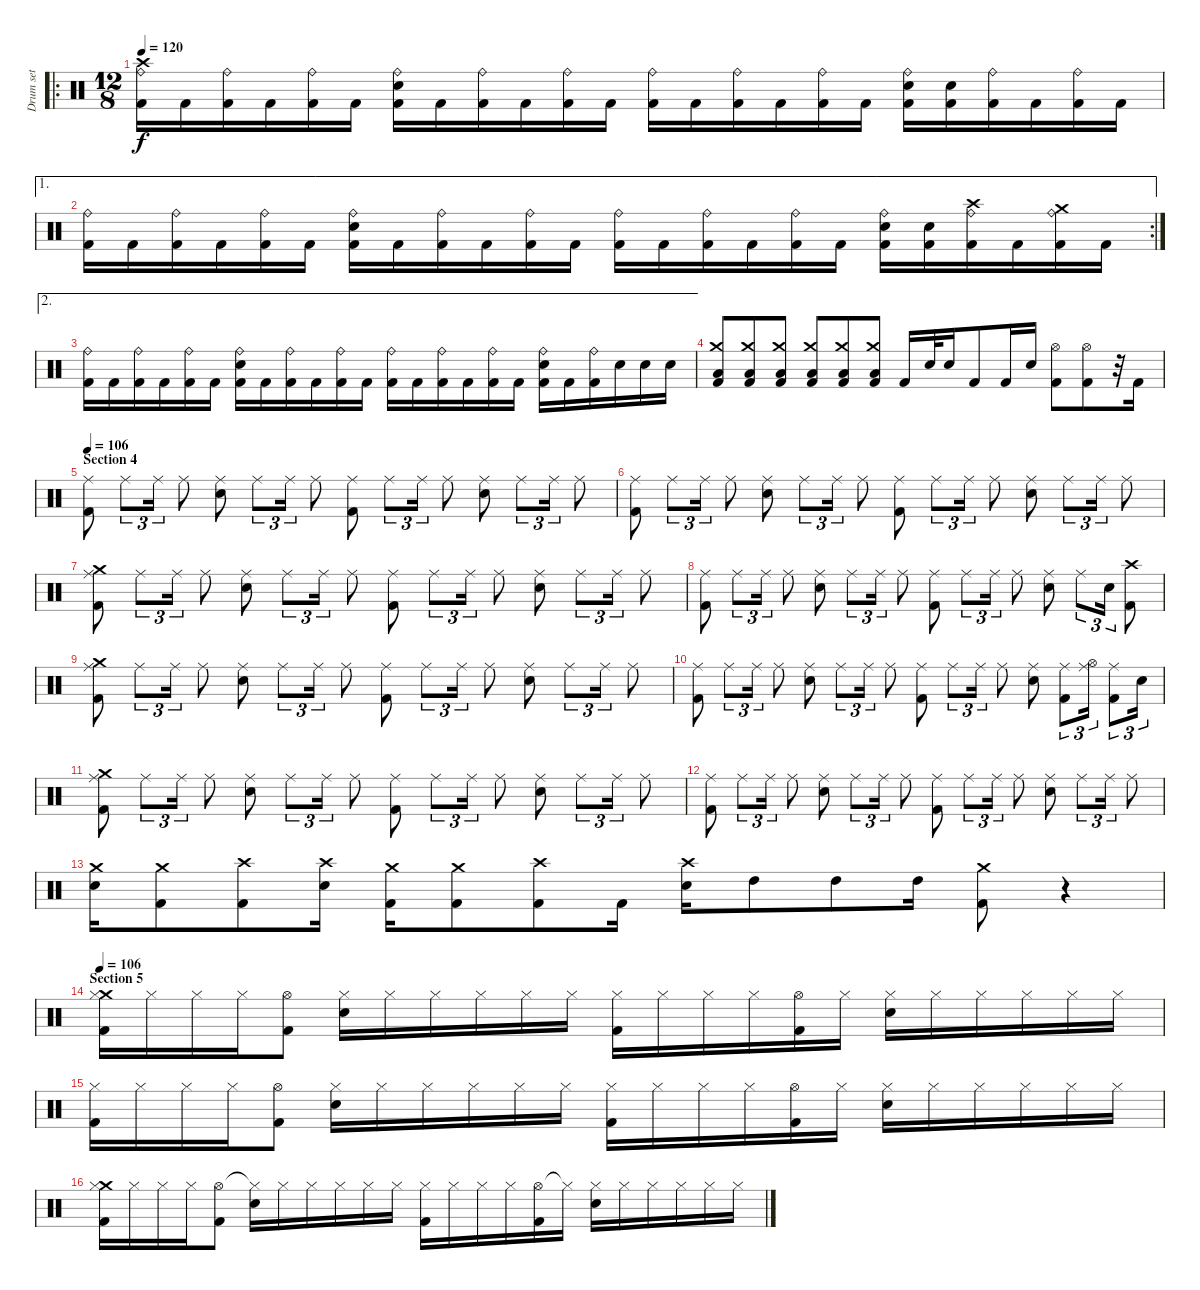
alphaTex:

\track ("Drum set" "Drum set") {instrument percussion}
\staff {score}
\articulation defaults
\ro
\ts (12 8)
\tempo 120
\clef neutral
\ks c
("Crash high (hit)" "Ride (bell)" "Kick (hit) 2").16{dy f} "Kick (hit) 2".16 ("Ride (bell)" "Kick (hit) 2").16 "Kick (hit) 2".16 ("Ride (bell)" "Kick (hit) 2").16 "Kick (hit) 2".16 ("Ride (bell)" "Snare (hit) 2" "Kick (hit) 2").16 "Kick (hit) 2".16 ("Ride (bell)" "Kick (hit) 2").16 "Kick (hit) 2".16 ("Ride (bell)" "Kick (hit) 2").16 "Kick (hit) 2".16 ("Ride (bell)" "Kick (hit) 2").16 "Kick (hit) 2".16 ("Ride (bell)" "Kick (hit) 2").16 "Kick (hit) 2".16 ("Ride (bell)" "Kick (hit) 2").16 "Kick (hit) 2".16 ("Ride (bell)" "Snare (hit) 2" "Kick (hit) 2").16 ("Snare (hit) 2" "Kick (hit) 2").16 ("Ride (bell)" "Kick (hit) 2").16 "Kick (hit) 2".16 ("Ride (bell)" "Kick (hit) 2").16 "Kick (hit) 2".16 |
\ae 1
\rc 2
("Ride (bell)" "Kick (hit) 2").16 "Kick (hit) 2".16 ("Ride (bell)" "Kick (hit) 2").16 "Kick (hit) 2".16 ("Ride (bell)" "Kick (hit) 2").16 "Kick (hit) 2".16 ("Ride (bell)" "Snare (hit) 2" "Kick (hit) 2").16 "Kick (hit) 2".16 ("Ride (bell)" "Kick (hit) 2").16 "Kick (hit) 2".16 ("Ride (bell)" "Kick (hit) 2").16 "Kick (hit) 2".16 ("Ride (bell)" "Kick (hit) 2").16 "Kick (hit) 2".16 ("Ride (bell)" "Kick (hit) 2").16 "Kick (hit) 2".16 ("Ride (bell)" "Kick (hit) 2").16 "Kick (hit) 2".16 ("Ride (bell)" "Snare (hit) 2" "Kick (hit) 2").16 ("Snare (hit) 2" "Kick (hit) 2").16 ("Crash high (hit)" "Ride (bell)" "Kick (hit) 2").16 "Kick (hit) 2".16 ("Crash medium (hit)" "Ride (bell)" "Kick (hit) 2").16 "Kick (hit) 2".16 |
\ae 2
("Ride (bell)" "Kick (hit) 2").16 "Kick (hit) 2".16 ("Ride (bell)" "Kick (hit) 2").16 "Kick (hit) 2".16 ("Ride (bell)" "Kick (hit) 2").16 "Kick (hit) 2".16 ("Ride (bell)" "Snare (hit) 2" "Kick (hit) 2").16 "Kick (hit) 2".16 ("Ride (bell)" "Kick (hit) 2").16 "Kick (hit) 2".16 ("Ride (bell)" "Kick (hit) 2").16 "Kick (hit) 2".16 ("Ride (bell)" "Kick (hit) 2").16 "Kick (hit) 2".16 ("Ride (bell)" "Kick (hit) 2").16 "Kick (hit) 2".16 ("Ride (bell)" "Kick (hit) 2").16 "Kick (hit) 2".16 ("Ride (bell)" "Snare (hit) 2" "Kick (hit) 2").16 "Kick (hit) 2".16 ("Ride (bell)" "Kick (hit) 2").16 "Snare (hit) 2".16 "Snare (hit) 2".16 "Snare (hit) 2".16 |
("Crash medium (hit)" "Low Floor Tom (hit)" "Kick (hit) 2").8 ("Crash medium (hit)" "Low Floor Tom (hit)" "Kick (hit) 2").8 ("Crash medium (hit)" "Low Floor Tom (hit)" "Kick (hit) 2").8 ("Crash medium (hit)" "Low Floor Tom (hit)" "Kick (hit) 2").8 ("Crash medium (hit)" "Low Floor Tom (hit)" "Kick (hit) 2").8 ("Crash medium (hit)" "Low Floor Tom (hit)" "Kick (hit) 2").8 "Kick (hit) 2".16 "Snare (hit) 2".32 "Snare (hit) 2".16 "Kick (hit) 2".8 "Kick (hit) 2".16 "Snare (hit) 2".16 ("Hi-Hat (open)" "Kick (hit) 2").8 ("Hi-Hat (open)" "Kick (hit) 2").8 r.32 "Kick (hit) 2".16 |
\section ("" "Section 4")
\tempo 106
("Ride (middle)" "Kick (hit) 2").8 "Ride (middle)".8{tu (3 2)} "Ride (middle)".16{tu (3 2)} "Ride (middle)".8 ("Ride (middle)" "Snare (hit) 2").8 "Ride (middle)".8{tu (3 2)} "Ride (middle)".16{tu (3 2)} "Ride (middle)".8 ("Ride (middle)" "Kick (hit) 2").8 "Ride (middle)".8{tu (3 2)} "Ride (middle)".16{tu (3 2)} "Ride (middle)".8 ("Ride (middle)" "Snare (hit) 2").8 "Ride (middle)".8{tu (3 2)} "Ride (middle)".16{tu (3 2)} "Ride (middle)".8 |
("Ride (middle)" "Kick (hit) 2").8 "Ride (middle)".8{tu (3 2)} "Ride (middle)".16{tu (3 2)} "Ride (middle)".8 ("Ride (middle)" "Snare (hit) 2").8 "Ride (middle)".8{tu (3 2)} "Ride (middle)".16{tu (3 2)} "Ride (middle)".8 ("Ride (middle)" "Kick (hit) 2").8 "Ride (middle)".8{tu (3 2)} "Ride (middle)".16{tu (3 2)} "Ride (middle)".8 ("Ride (middle)" "Snare (hit) 2").8 "Ride (middle)".8{tu (3 2)} "Ride (middle)".16{tu (3 2)} "Ride (middle)".8 |
("Crash medium (hit)" "Ride (middle)" "Kick (hit) 2").8 "Ride (middle)".8{tu (3 2)} "Ride (middle)".16{tu (3 2)} "Ride (middle)".8 ("Ride (middle)" "Snare (hit) 2").8 "Ride (middle)".8{tu (3 2)} "Ride (middle)".16{tu (3 2)} "Ride (middle)".8 ("Ride (middle)" "Kick (hit) 2").8 "Ride (middle)".8{tu (3 2)} "Ride (middle)".16{tu (3 2)} "Ride (middle)".8 ("Ride (middle)" "Snare (hit) 2").8 "Ride (middle)".8{tu (3 2)} "Ride (middle)".16{tu (3 2)} "Ride (middle)".8 |
("Ride (middle)" "Kick (hit) 2").8 "Ride (middle)".8{tu (3 2)} "Ride (middle)".16{tu (3 2)} "Ride (middle)".8 ("Ride (middle)" "Snare (hit) 2").8 "Ride (middle)".8{tu (3 2)} "Ride (middle)".16{tu (3 2)} "Ride (middle)".8 ("Ride (middle)" "Kick (hit) 2").8 "Ride (middle)".8{tu (3 2)} "Ride (middle)".16{tu (3 2)} "Ride (middle)".8 ("Ride (middle)" "Snare (hit) 2").8 "Ride (middle)".8{tu (3 2)} "Snare (hit) 2".16{tu (3 2)} ("Crash high (hit)" "Kick (hit) 2").8 |
("Crash medium (hit)" "Ride (middle)" "Kick (hit) 2").8 "Ride (middle)".8{tu (3 2)} "Ride (middle)".16{tu (3 2)} "Ride (middle)".8 ("Ride (middle)" "Snare (hit) 2").8 "Ride (middle)".8{tu (3 2)} "Ride (middle)".16{tu (3 2)} "Ride (middle)".8 ("Ride (middle)" "Kick (hit) 2").8 "Ride (middle)".8{tu (3 2)} "Ride (middle)".16{tu (3 2)} "Ride (middle)".8 ("Ride (middle)" "Snare (hit) 2").8 "Ride (middle)".8{tu (3 2)} "Ride (middle)".16{tu (3 2)} "Ride (middle)".8 |
("Ride (middle)" "Kick (hit) 2").8 "Ride (middle)".8{tu (3 2)} "Ride (middle)".16{tu (3 2)} "Ride (middle)".8 ("Ride (middle)" "Snare (hit) 2").8 "Ride (middle)".8{tu (3 2)} "Ride (middle)".16{tu (3 2)} "Ride (middle)".8 ("Ride (middle)" "Kick (hit) 2").8 "Ride (middle)".8{tu (3 2)} "Ride (middle)".16{tu (3 2)} "Ride (middle)".8 ("Ride (middle)" "Snare (hit) 2").8 ("Ride (middle)" "Kick (hit) 2").8{tu (3 2)} ("Ride (middle)" "Hi-Hat (open)").16{tu (3 2)} ("Ride (middle)" "Kick (hit) 2").8{tu (3 2)} "Snare (hit) 2".16{tu (3 2)} |
("Crash medium (hit)" "Ride (middle)" "Kick (hit) 2").8 "Ride (middle)".8{tu (3 2)} "Ride (middle)".16{tu (3 2)} "Ride (middle)".8 ("Ride (middle)" "Snare (hit) 2").8 "Ride (middle)".8{tu (3 2)} "Ride (middle)".16{tu (3 2)} "Ride (middle)".8 ("Ride (middle)" "Kick (hit) 2").8 "Ride (middle)".8{tu (3 2)} "Ride (middle)".16{tu (3 2)} "Ride (middle)".8 ("Ride (middle)" "Snare (hit) 2").8 "Ride (middle)".8{tu (3 2)} "Ride (middle)".16{tu (3 2)} "Ride (middle)".8 |
("Ride (middle)" "Kick (hit) 2").8 "Ride (middle)".8{tu (3 2)} "Ride (middle)".16{tu (3 2)} "Ride (middle)".8 ("Ride (middle)" "Snare (hit) 2").8 "Ride (middle)".8{tu (3 2)} "Ride (middle)".16{tu (3 2)} "Ride (middle)".8 ("Ride (middle)" "Kick (hit) 2").8 "Ride (middle)".8{tu (3 2)} "Ride (middle)".16{tu (3 2)} "Ride (middle)".8 ("Ride (middle)" "Snare (hit) 2").8 "Ride (middle)".8{tu (3 2)} "Ride (middle)".16{tu (3 2)} "Ride (middle)".8 |
("Crash medium (hit)" "Snare (hit) 2").16 ("Crash medium (hit)" "Kick (hit) 2").8 ("Crash high (hit)" "Kick (hit) 2").8 ("Crash high (hit)" "Snare (hit) 2").16 ("Crash medium (hit)" "Kick (hit) 2").16 ("Crash medium (hit)" "Kick (hit) 2").8 ("Crash high (hit)" "Kick (hit) 2").8 "Kick (hit) 2".16 ("Crash high (hit)" "Snare (hit) 2").16 "High Tom (hit)".8 "High Tom (hit)".8 "High Tom (hit)".16 ("Crash medium (hit)" "Kick (hit) 2").8 r.4 |
\section ("" "Section 5")
\tempo 106
("Crash medium (hit)" "Hi-Hat (closed)" "Kick (hit) 2").16 "Hi-Hat (closed)".16 "Hi-Hat (closed)".16 "Hi-Hat (closed)".16 ("Hi-Hat (open)" "Kick (hit) 2").8 ("Hi-Hat (closed)" "Snare (hit) 2").16 "Hi-Hat (closed)".16 "Hi-Hat (closed)".16 "Hi-Hat (closed)".16 "Hi-Hat (closed)".16 "Hi-Hat (closed)".16 ("Hi-Hat (closed)" "Kick (hit) 2").16 "Hi-Hat (closed)".16 "Hi-Hat (closed)".16 "Hi-Hat (closed)".16 ("Hi-Hat (open)" "Kick (hit) 2").16 "Hi-Hat (closed)".16 ("Hi-Hat (closed)" "Snare (hit) 2").16 "Hi-Hat (closed)".16 "Hi-Hat (closed)".16 "Hi-Hat (closed)".16 "Hi-Hat (closed)".16 "Hi-Hat (closed)".16 |
("Hi-Hat (closed)" "Kick (hit) 2").16 "Hi-Hat (closed)".16 "Hi-Hat (closed)".16 "Hi-Hat (closed)".16 ("Hi-Hat (open)" "Kick (hit) 2").8 ("Hi-Hat (closed)" "Snare (hit) 2").16 "Hi-Hat (closed)".16 "Hi-Hat (closed)".16 "Hi-Hat (closed)".16 "Hi-Hat (closed)".16 "Hi-Hat (closed)".16 ("Hi-Hat (closed)" "Kick (hit) 2").16 "Hi-Hat (closed)".16 "Hi-Hat (closed)".16 "Hi-Hat (closed)".16 ("Hi-Hat (open)" "Kick (hit) 2").16 "Hi-Hat (closed)".16 ("Hi-Hat (closed)" "Snare (hit) 2").16 "Hi-Hat (closed)".16 "Hi-Hat (closed)".16 "Hi-Hat (closed)".16 "Hi-Hat (closed)".16 "Hi-Hat (closed)".16 |
("Crash medium (hit)" "Hi-Hat (closed)" "Kick (hit) 2").16 "Hi-Hat (closed)".16 "Hi-Hat (closed)".16 "Hi-Hat (closed)".16 ("Hi-Hat (open)" "Kick (hit) 2").8 ("Hi-Hat (closed)"{t} "Snare (hit) 2").16 "Hi-Hat (closed)".16 "Hi-Hat (closed)".16 "Hi-Hat (closed)".16 "Hi-Hat (closed)".16 "Hi-Hat (closed)".16 ("Hi-Hat (closed)" "Kick (hit) 2").16 "Hi-Hat (closed)".16 "Hi-Hat (closed)".16 "Hi-Hat (closed)".16 ("Hi-Hat (open)" "Kick (hit) 2").16 "Hi-Hat (closed)"{t}.16 ("Hi-Hat (closed)" "Snare (hit) 2").16 "Hi-Hat (closed)".16 "Hi-Hat (closed)".16 "Hi-Hat (closed)".16 "Hi-Hat (closed)".16 "Hi-Hat (closed)".16
